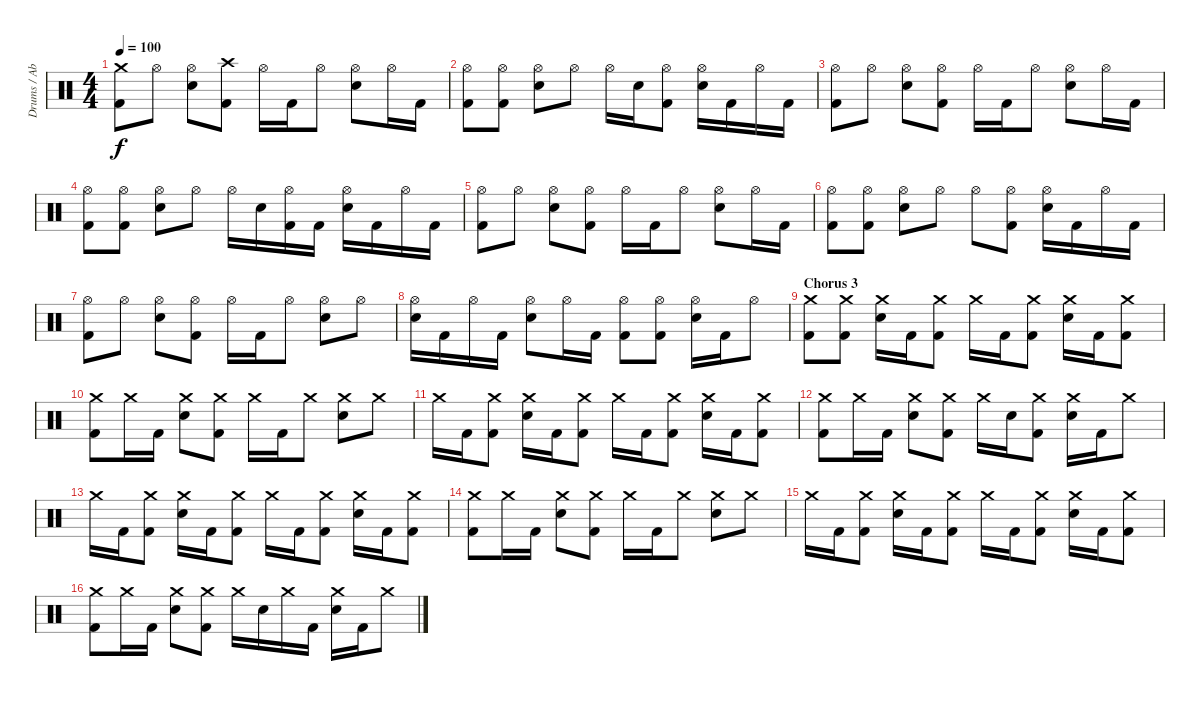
\track ("Drums / Abe Cunningham" "Drums / Ab") {instrument percussion}
\staff {score}
\articulation defaults
\ts (4 4)
\tempo 100
\clef neutral
\ks c
("Crash medium (hit)" "Kick (hit) 2").8{dy f} "Hi-Hat (open)".8 ("Hi-Hat (open)" "Electric Snare (hit)").8 ("Crash high (hit)" "Kick (hit) 2").8 "Hi-Hat (open)".16 "Kick (hit) 2".16 "Hi-Hat (open)".8 ("Hi-Hat (open)" "Electric Snare (hit)").8 "Hi-Hat (open)".16 "Kick (hit) 2".16 |
("Hi-Hat (open)" "Kick (hit) 2").8 ("Hi-Hat (open)" "Kick (hit) 2").8 ("Hi-Hat (open)" "Electric Snare (hit)").8 "Hi-Hat (open)".8 "Hi-Hat (open)".16 "Electric Snare (hit)".16 ("Hi-Hat (open)" "Kick (hit) 2").8 ("Hi-Hat (open)" "Electric Snare (hit)").16 "Kick (hit) 2".16 "Hi-Hat (open)".16 "Kick (hit) 2".16 |
("Hi-Hat (open)" "Kick (hit) 2").8 "Hi-Hat (open)".8 ("Hi-Hat (open)" "Electric Snare (hit)").8 ("Hi-Hat (open)" "Kick (hit) 2").8 "Hi-Hat (open)".16 "Kick (hit) 2".16 "Hi-Hat (open)".8 ("Hi-Hat (open)" "Electric Snare (hit)").8 "Hi-Hat (open)".16 "Kick (hit) 2".16 |
("Hi-Hat (open)" "Kick (hit) 2").8 ("Hi-Hat (open)" "Kick (hit) 2").8 ("Hi-Hat (open)" "Electric Snare (hit)").8 "Hi-Hat (open)".8 "Hi-Hat (open)".16 "Electric Snare (hit)".16 ("Hi-Hat (open)" "Kick (hit) 2").16 "Kick (hit) 2".16 ("Hi-Hat (open)" "Electric Snare (hit)").16 "Kick (hit) 2".16 "Hi-Hat (open)".16 "Kick (hit) 2".16 |
("Hi-Hat (open)" "Kick (hit) 2").8 "Hi-Hat (open)".8 ("Hi-Hat (open)" "Electric Snare (hit)").8 ("Hi-Hat (open)" "Kick (hit) 2").8 "Hi-Hat (open)".16 "Kick (hit) 2".16 "Hi-Hat (open)".8 ("Hi-Hat (open)" "Electric Snare (hit)").8 "Hi-Hat (open)".16 "Kick (hit) 2".16 |
("Hi-Hat (open)" "Kick (hit) 2").8 ("Hi-Hat (open)" "Kick (hit) 2").8 ("Hi-Hat (open)" "Electric Snare (hit)").8 "Hi-Hat (open)".8 "Hi-Hat (open)".8 ("Hi-Hat (open)" "Kick (hit) 2").8 ("Hi-Hat (open)" "Electric Snare (hit)").16 "Kick (hit) 2".16 "Hi-Hat (open)".16 "Kick (hit) 2".16 |
("Hi-Hat (open)" "Kick (hit) 2").8 "Hi-Hat (open)".8 ("Hi-Hat (open)" "Electric Snare (hit)").8 ("Hi-Hat (open)" "Kick (hit) 2").8 "Hi-Hat (open)".16 "Kick (hit) 2".16 "Hi-Hat (open)".8 ("Hi-Hat (open)" "Electric Snare (hit)").8 "Hi-Hat (open)".8 |
("Hi-Hat (open)" "Electric Snare (hit)").16 "Kick (hit) 2".16 "Hi-Hat (open)".16 "Kick (hit) 2".16 ("Hi-Hat (open)" "Electric Snare (hit)").8 "Hi-Hat (open)".16 "Kick (hit) 2".16 ("Hi-Hat (open)" "Kick (hit) 2").8 ("Hi-Hat (open)" "Kick (hit) 2").8 ("Hi-Hat (open)" "Electric Snare (hit)").16 "Kick (hit) 2".16 "Hi-Hat (open)".8 |
\section ("" "Chorus 3")
("Crash medium (hit)" "Kick (hit) 2").8 ("Crash medium (hit)" "Kick (hit) 2").8 ("Crash medium (hit)" "Electric Snare (hit)").16 "Kick (hit) 2".16 ("Crash medium (hit)" "Kick (hit) 2").8 "Crash medium (hit)".16 "Kick (hit) 2".16 ("Crash medium (hit)" "Kick (hit) 2").8 ("Crash medium (hit)" "Electric Snare (hit)").16 "Kick (hit) 2".16 ("Crash medium (hit)" "Kick (hit) 2").8 |
("Crash medium (hit)" "Kick (hit) 2").8 "Crash medium (hit)".16 "Kick (hit) 2".16 ("Crash medium (hit)" "Electric Snare (hit)").8 ("Crash medium (hit)" "Kick (hit) 2").8 "Crash medium (hit)".16 "Kick (hit) 2".16 "Crash medium (hit)".8 ("Crash medium (hit)" "Electric Snare (hit)").8 "Crash medium (hit)".8 |
"Crash medium (hit)".16 "Kick (hit) 2".16 ("Crash medium (hit)" "Kick (hit) 2").8 ("Crash medium (hit)" "Electric Snare (hit)").16 "Kick (hit) 2".16 ("Crash medium (hit)" "Kick (hit) 2").8 "Crash medium (hit)".16 "Kick (hit) 2".16 ("Crash medium (hit)" "Kick (hit) 2").8 ("Crash medium (hit)" "Electric Snare (hit)").16 "Kick (hit) 2".16 ("Crash medium (hit)" "Kick (hit) 2").8 |
("Crash medium (hit)" "Kick (hit) 2").8 "Crash medium (hit)".16 "Kick (hit) 2".16 ("Crash medium (hit)" "Electric Snare (hit)").8 ("Crash medium (hit)" "Kick (hit) 2").8 "Crash medium (hit)".16 "Electric Snare (hit)".16 ("Crash medium (hit)" "Kick (hit) 2").8 ("Crash medium (hit)" "Electric Snare (hit)").16 "Kick (hit) 2".16 "Crash medium (hit)".8 |
"Crash medium (hit)".16 "Kick (hit) 2".16 ("Crash medium (hit)" "Kick (hit) 2").8 ("Crash medium (hit)" "Electric Snare (hit)").16 "Kick (hit) 2".16 ("Crash medium (hit)" "Kick (hit) 2").8 "Crash medium (hit)".16 "Kick (hit) 2".16 ("Crash medium (hit)" "Kick (hit) 2").8 ("Crash medium (hit)" "Electric Snare (hit)").16 "Kick (hit) 2".16 ("Crash medium (hit)" "Kick (hit) 2").8 |
("Crash medium (hit)" "Kick (hit) 2").8 "Crash medium (hit)".16 "Kick (hit) 2".16 ("Crash medium (hit)" "Electric Snare (hit)").8 ("Crash medium (hit)" "Kick (hit) 2").8 "Crash medium (hit)".16 "Kick (hit) 2".16 "Crash medium (hit)".8 ("Crash medium (hit)" "Electric Snare (hit)").8 "Crash medium (hit)".8 |
"Crash medium (hit)".16 "Kick (hit) 2".16 ("Crash medium (hit)" "Kick (hit) 2").8 ("Crash medium (hit)" "Electric Snare (hit)").16 "Kick (hit) 2".16 ("Crash medium (hit)" "Kick (hit) 2").8 "Crash medium (hit)".16 "Kick (hit) 2".16 ("Crash medium (hit)" "Kick (hit) 2").8 ("Crash medium (hit)" "Electric Snare (hit)").16 "Kick (hit) 2".16 ("Crash medium (hit)" "Kick (hit) 2").8 |
("Crash medium (hit)" "Kick (hit) 2").8 "Crash medium (hit)".16 "Kick (hit) 2".16 ("Crash medium (hit)" "Electric Snare (hit)").8 ("Crash medium (hit)" "Kick (hit) 2").8 "Crash medium (hit)".16 "Electric Snare (hit)".16 "Crash medium (hit)".16 "Kick (hit) 2".16 ("Crash medium (hit)" "Electric Snare (hit)").16 "Kick (hit) 2".16 "Crash medium (hit)".8
